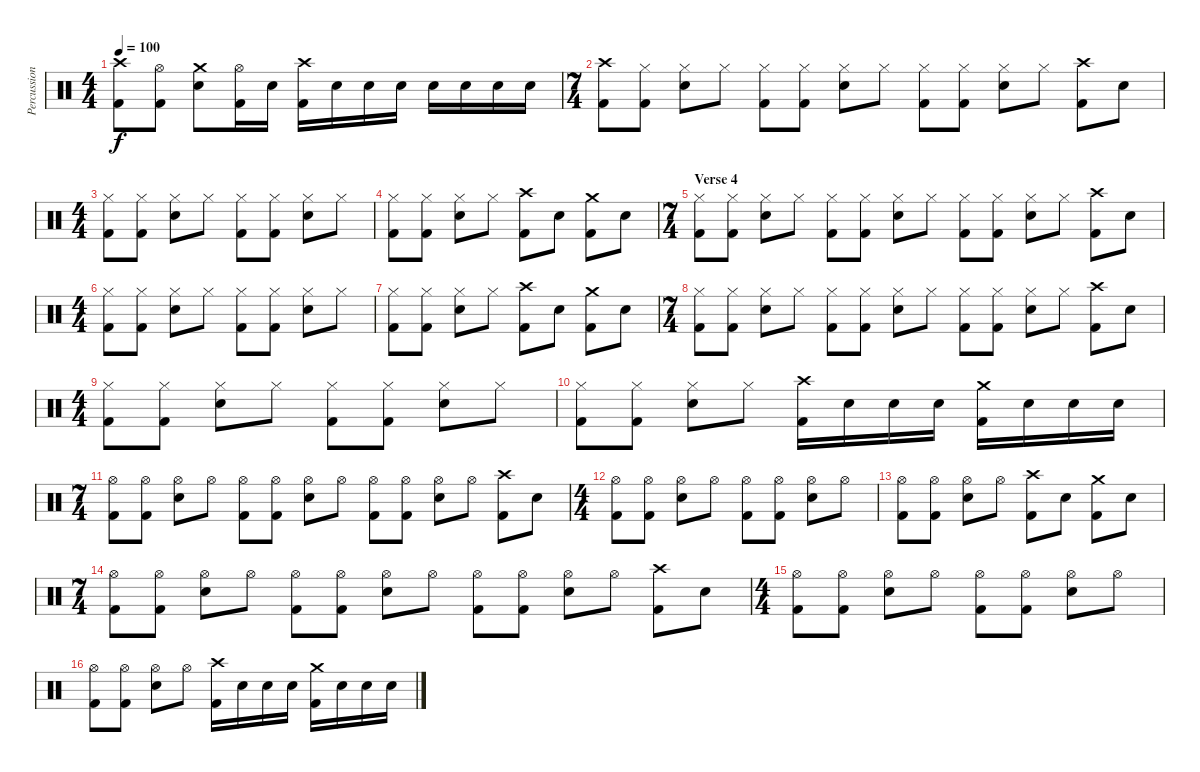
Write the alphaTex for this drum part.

\track ("Percussion" "Percussion") {instrument percussion}
\staff {score}
\articulation defaults
\ts (4 4)
\tempo 100
\clef neutral
\ks c
("Crash high (hit)" "Kick (hit) 2").8{dy f} ("Hi-Hat (open)" "Kick (hit) 2").8 ("Crash medium (hit)" "Electric Snare (hit)").8 ("Hi-Hat (open)" "Kick (hit) 2").16 "Electric Snare (hit)".16 ("Crash high (hit)" "Kick (hit) 2").16 "Electric Snare (hit)".16 "Electric Snare (hit)".16 "Electric Snare (hit)".16 "Electric Snare (hit)".16 "Electric Snare (hit)".16 "Electric Snare (hit)".16 "Electric Snare (hit)".16 |
\ts (7 4)
("Crash high (hit)" "Kick (hit) 2").8 ("Hi-Hat (closed)" "Kick (hit) 2").8 ("Hi-Hat (closed)" "Electric Snare (hit)").8 "Hi-Hat (closed)".8 ("Hi-Hat (closed)" "Kick (hit) 2").8 ("Hi-Hat (closed)" "Kick (hit) 2").8 ("Hi-Hat (closed)" "Electric Snare (hit)").8 "Hi-Hat (closed)".8 ("Hi-Hat (closed)" "Kick (hit) 2").8 ("Hi-Hat (closed)" "Kick (hit) 2").8 ("Hi-Hat (closed)" "Electric Snare (hit)").8 "Hi-Hat (closed)".8 ("Crash high (hit)" "Kick (hit) 2").8 "Electric Snare (hit)".8 |
\ts (4 4)
("Hi-Hat (closed)" "Kick (hit) 2").8 ("Hi-Hat (closed)" "Kick (hit) 2").8 ("Hi-Hat (closed)" "Electric Snare (hit)").8 "Hi-Hat (closed)".8 ("Hi-Hat (closed)" "Kick (hit) 2").8 ("Hi-Hat (closed)" "Kick (hit) 2").8 ("Hi-Hat (closed)" "Electric Snare (hit)").8 "Hi-Hat (closed)".8 |
("Hi-Hat (closed)" "Kick (hit) 2").8 ("Hi-Hat (closed)" "Kick (hit) 2").8 ("Hi-Hat (closed)" "Electric Snare (hit)").8 "Hi-Hat (closed)".8 ("Crash high (hit)" "Kick (hit) 2").8 "Electric Snare (hit)".8 ("Crash medium (hit)" "Kick (hit) 2").8 "Electric Snare (hit)".8 |
\ts (7 4)
\section ("" "Verse 4")
("Hi-Hat (closed)" "Kick (hit) 2").8 ("Hi-Hat (closed)" "Kick (hit) 2").8 ("Hi-Hat (closed)" "Electric Snare (hit)").8 "Hi-Hat (closed)".8 ("Hi-Hat (closed)" "Kick (hit) 2").8 ("Hi-Hat (closed)" "Kick (hit) 2").8 ("Hi-Hat (closed)" "Electric Snare (hit)").8 "Hi-Hat (closed)".8 ("Hi-Hat (closed)" "Kick (hit) 2").8 ("Hi-Hat (closed)" "Kick (hit) 2").8 ("Hi-Hat (closed)" "Electric Snare (hit)").8 "Hi-Hat (closed)".8 ("Crash high (hit)" "Kick (hit) 2").8 "Electric Snare (hit)".8 |
\ts (4 4)
("Hi-Hat (closed)" "Kick (hit) 2").8 ("Hi-Hat (closed)" "Kick (hit) 2").8 ("Hi-Hat (closed)" "Electric Snare (hit)").8 "Hi-Hat (closed)".8 ("Hi-Hat (closed)" "Kick (hit) 2").8 ("Hi-Hat (closed)" "Kick (hit) 2").8 ("Hi-Hat (closed)" "Electric Snare (hit)").8 "Hi-Hat (closed)".8 |
("Hi-Hat (closed)" "Kick (hit) 2").8 ("Hi-Hat (closed)" "Kick (hit) 2").8 ("Hi-Hat (closed)" "Electric Snare (hit)").8 "Hi-Hat (closed)".8 ("Crash high (hit)" "Kick (hit) 2").8 "Electric Snare (hit)".8 ("Crash medium (hit)" "Kick (hit) 2").8 "Electric Snare (hit)".8 |
\ts (7 4)
("Hi-Hat (closed)" "Kick (hit) 2").8 ("Hi-Hat (closed)" "Kick (hit) 2").8 ("Hi-Hat (closed)" "Electric Snare (hit)").8 "Hi-Hat (closed)".8 ("Hi-Hat (closed)" "Kick (hit) 2").8 ("Hi-Hat (closed)" "Kick (hit) 2").8 ("Hi-Hat (closed)" "Electric Snare (hit)").8 "Hi-Hat (closed)".8 ("Hi-Hat (closed)" "Kick (hit) 2").8 ("Hi-Hat (closed)" "Kick (hit) 2").8 ("Hi-Hat (closed)" "Electric Snare (hit)").8 "Hi-Hat (closed)".8 ("Crash high (hit)" "Kick (hit) 2").8 "Electric Snare (hit)".8 |
\ts (4 4)
("Hi-Hat (closed)" "Kick (hit) 2").8 ("Hi-Hat (closed)" "Kick (hit) 2").8 ("Hi-Hat (closed)" "Electric Snare (hit)").8 "Hi-Hat (closed)".8 ("Hi-Hat (closed)" "Kick (hit) 2").8 ("Hi-Hat (closed)" "Kick (hit) 2").8 ("Hi-Hat (closed)" "Electric Snare (hit)").8 "Hi-Hat (closed)".8 |
("Hi-Hat (closed)" "Kick (hit) 2").8 ("Hi-Hat (closed)" "Kick (hit) 2").8 ("Hi-Hat (closed)" "Electric Snare (hit)").8 "Hi-Hat (closed)".8 ("Crash high (hit)" "Kick (hit) 2").16 "Electric Snare (hit)".16 "Electric Snare (hit)".16 "Electric Snare (hit)".16 ("Crash medium (hit)" "Kick (hit) 2").16 "Electric Snare (hit)".16 "Electric Snare (hit)".16 "Electric Snare (hit)".16 |
\ts (7 4)
("Hi-Hat (open)" "Kick (hit) 2").8 ("Hi-Hat (open)" "Kick (hit) 2").8 ("Hi-Hat (open)" "Electric Snare (hit)").8 "Hi-Hat (open)".8 ("Hi-Hat (open)" "Kick (hit) 2").8 ("Hi-Hat (open)" "Kick (hit) 2").8 ("Hi-Hat (open)" "Electric Snare (hit)").8 "Hi-Hat (open)".8 ("Hi-Hat (open)" "Kick (hit) 2").8 ("Hi-Hat (open)" "Kick (hit) 2").8 ("Hi-Hat (open)" "Electric Snare (hit)").8 "Hi-Hat (open)".8 ("Crash high (hit)" "Kick (hit) 2").8 "Electric Snare (hit)".8 |
\ts (4 4)
("Hi-Hat (open)" "Kick (hit) 2").8 ("Hi-Hat (open)" "Kick (hit) 2").8 ("Hi-Hat (open)" "Electric Snare (hit)").8 "Hi-Hat (open)".8 ("Hi-Hat (open)" "Kick (hit) 2").8 ("Hi-Hat (open)" "Kick (hit) 2").8 ("Hi-Hat (open)" "Electric Snare (hit)").8 "Hi-Hat (open)".8 |
("Hi-Hat (open)" "Kick (hit) 2").8 ("Hi-Hat (open)" "Kick (hit) 2").8 ("Hi-Hat (open)" "Electric Snare (hit)").8 "Hi-Hat (open)".8 ("Crash high (hit)" "Kick (hit) 2").8 "Electric Snare (hit)".8 ("Crash medium (hit)" "Kick (hit) 2").8 "Electric Snare (hit)".8 |
\ts (7 4)
("Hi-Hat (open)" "Kick (hit) 2").8 ("Hi-Hat (open)" "Kick (hit) 2").8 ("Hi-Hat (open)" "Electric Snare (hit)").8 "Hi-Hat (open)".8 ("Hi-Hat (open)" "Kick (hit) 2").8 ("Hi-Hat (open)" "Kick (hit) 2").8 ("Hi-Hat (open)" "Electric Snare (hit)").8 "Hi-Hat (open)".8 ("Hi-Hat (open)" "Kick (hit) 2").8 ("Hi-Hat (open)" "Kick (hit) 2").8 ("Hi-Hat (open)" "Electric Snare (hit)").8 "Hi-Hat (open)".8 ("Crash high (hit)" "Kick (hit) 2").8 "Electric Snare (hit)".8 |
\ts (4 4)
("Hi-Hat (open)" "Kick (hit) 2").8 ("Hi-Hat (open)" "Kick (hit) 2").8 ("Hi-Hat (open)" "Electric Snare (hit)").8 "Hi-Hat (open)".8 ("Hi-Hat (open)" "Kick (hit) 2").8 ("Hi-Hat (open)" "Kick (hit) 2").8 ("Hi-Hat (open)" "Electric Snare (hit)").8 "Hi-Hat (open)".8 |
("Hi-Hat (open)" "Kick (hit) 2").8 ("Hi-Hat (open)" "Kick (hit) 2").8 ("Hi-Hat (open)" "Electric Snare (hit)").8 "Hi-Hat (open)".8 ("Crash high (hit)" "Kick (hit) 2").16 "Electric Snare (hit)".16 "Electric Snare (hit)".16 "Electric Snare (hit)".16 ("Crash medium (hit)" "Kick (hit) 2").16 "Electric Snare (hit)".16 "Electric Snare (hit)".16 "Electric Snare (hit)".16
